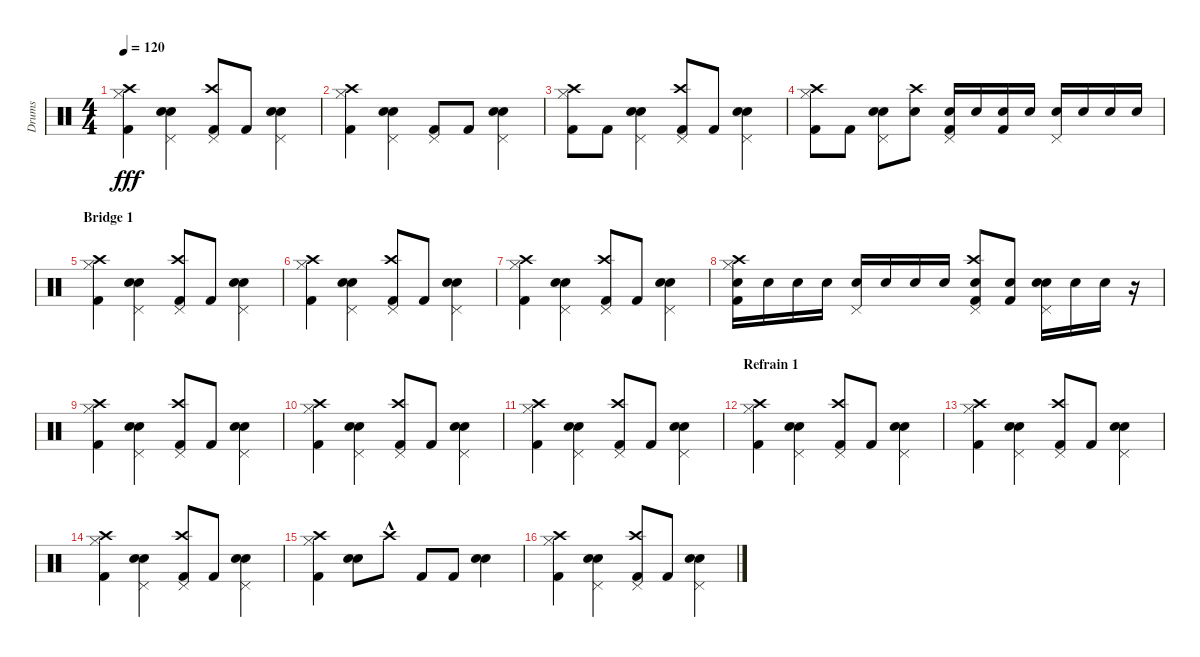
\track ("Drums" "Drums") {instrument percussion}
\staff {score}
\articulation defaults
\ts (4 4)
\tempo 120
\clef neutral
\ks c
("Hi-Hat (closed)" "Kick (hit) 2" "Crash high (hit)").4{dy fff} ("Electric Snare (hit)" "Pedal Hi-Hat (hit)" "Snare (hit) 2").4 ("Pedal Hi-Hat (hit)" "Kick (hit) 2" "Crash high (hit)").8 "Kick (hit) 2".8 ("Electric Snare (hit)" "Pedal Hi-Hat (hit)" "Snare (hit) 2").4 |
("Hi-Hat (closed)" "Kick (hit) 2" "Crash high (hit)").4 ("Electric Snare (hit)" "Pedal Hi-Hat (hit)" "Snare (hit) 2").4 ("Pedal Hi-Hat (hit)" "Kick (hit) 2").8 "Kick (hit) 2".8 ("Electric Snare (hit)" "Pedal Hi-Hat (hit)" "Snare (hit) 2").4 |
("Hi-Hat (closed)" "Kick (hit) 2" "Crash high (hit)").8 "Kick (hit) 2".8 ("Electric Snare (hit)" "Pedal Hi-Hat (hit)" "Snare (hit) 2").4 ("Pedal Hi-Hat (hit)" "Kick (hit) 2" "Crash high (hit)").8 "Kick (hit) 2".8 ("Electric Snare (hit)" "Pedal Hi-Hat (hit)" "Snare (hit) 2").4 |
("Hi-Hat (closed)" "Kick (hit) 2" "Crash high (hit)").8 "Kick (hit) 2".8 ("Electric Snare (hit)" "Pedal Hi-Hat (hit)" "Snare (hit) 2").8 ("Crash high (hit)" "Snare (hit) 2").8 ("Pedal Hi-Hat (hit)" "Kick (hit) 2" "Snare (hit) 2").16 "Snare (hit) 2".16 ("Kick (hit) 2" "Snare (hit) 2").16 "Snare (hit) 2".16 ("Pedal Hi-Hat (hit)" "Electric Snare (hit)").16 "Electric Snare (hit)".16 "Snare (hit) 2".16 "Snare (hit) 2".16 |
\section ("" "Bridge 1")
("Hi-Hat (closed)" "Kick (hit) 2" "Crash high (hit)").4 ("Electric Snare (hit)" "Pedal Hi-Hat (hit)" "Snare (hit) 2").4 ("Pedal Hi-Hat (hit)" "Kick (hit) 2" "Crash high (hit)").8 "Kick (hit) 2".8 ("Electric Snare (hit)" "Pedal Hi-Hat (hit)" "Snare (hit) 2").4 |
("Hi-Hat (closed)" "Kick (hit) 2" "Crash high (hit)").4 ("Electric Snare (hit)" "Pedal Hi-Hat (hit)" "Snare (hit) 2").4 ("Pedal Hi-Hat (hit)" "Kick (hit) 2" "Crash high (hit)").8 "Kick (hit) 2".8 ("Electric Snare (hit)" "Pedal Hi-Hat (hit)" "Snare (hit) 2").4 |
("Hi-Hat (closed)" "Kick (hit) 2" "Crash high (hit)").4 ("Electric Snare (hit)" "Pedal Hi-Hat (hit)" "Snare (hit) 2").4 ("Pedal Hi-Hat (hit)" "Kick (hit) 2" "Crash high (hit)").8 "Kick (hit) 2".8 ("Electric Snare (hit)" "Pedal Hi-Hat (hit)" "Snare (hit) 2").4 |
("Hi-Hat (closed)" "Kick (hit) 2" "Crash high (hit)" "Electric Snare (hit)").16 "Electric Snare (hit)".16 "Electric Snare (hit)".16 "Electric Snare (hit)".16 ("Pedal Hi-Hat (hit)" "Snare (hit) 2").16 "Snare (hit) 2".16 "Snare (hit) 2".16 "Snare (hit) 2".16 ("Pedal Hi-Hat (hit)" "Kick (hit) 2" "Crash high (hit)" "Snare (hit) 2").8 ("Kick (hit) 2" "Snare (hit) 2").8 ("Electric Snare (hit)" "Pedal Hi-Hat (hit)" "Snare (hit) 2").16 "Snare (hit) 2".16 "Snare (hit) 2".16 r.16 |
("Hi-Hat (closed)" "Kick (hit) 2" "Crash high (hit)").4 ("Electric Snare (hit)" "Pedal Hi-Hat (hit)" "Snare (hit) 2").4 ("Pedal Hi-Hat (hit)" "Kick (hit) 2" "Crash high (hit)").8 "Kick (hit) 2".8 ("Electric Snare (hit)" "Pedal Hi-Hat (hit)" "Snare (hit) 2").4 |
("Hi-Hat (closed)" "Kick (hit) 2" "Crash high (hit)").4 ("Electric Snare (hit)" "Pedal Hi-Hat (hit)" "Snare (hit) 2").4 ("Pedal Hi-Hat (hit)" "Kick (hit) 2" "Crash high (hit)").8 "Kick (hit) 2".8 ("Electric Snare (hit)" "Pedal Hi-Hat (hit)" "Snare (hit) 2").4 |
("Hi-Hat (closed)" "Kick (hit) 2" "Crash high (hit)").4 ("Electric Snare (hit)" "Pedal Hi-Hat (hit)" "Snare (hit) 2").4 ("Pedal Hi-Hat (hit)" "Kick (hit) 2" "Crash high (hit)").8 "Kick (hit) 2".8 ("Electric Snare (hit)" "Pedal Hi-Hat (hit)" "Snare (hit) 2").4 |
\section ("" "Refrain 1")
("Hi-Hat (closed)" "Kick (hit) 2" "Crash high (hit)").4 ("Electric Snare (hit)" "Pedal Hi-Hat (hit)" "Snare (hit) 2").4 ("Pedal Hi-Hat (hit)" "Kick (hit) 2" "Crash high (hit)").8 "Kick (hit) 2".8 ("Electric Snare (hit)" "Pedal Hi-Hat (hit)" "Snare (hit) 2").4 |
("Hi-Hat (closed)" "Kick (hit) 2" "Crash high (hit)").4 ("Electric Snare (hit)" "Pedal Hi-Hat (hit)" "Snare (hit) 2").4 ("Pedal Hi-Hat (hit)" "Kick (hit) 2" "Crash high (hit)").8 "Kick (hit) 2".8 ("Electric Snare (hit)" "Pedal Hi-Hat (hit)" "Snare (hit) 2").4 |
("Hi-Hat (closed)" "Kick (hit) 2" "Crash high (hit)").4 ("Electric Snare (hit)" "Pedal Hi-Hat (hit)" "Snare (hit) 2").4 ("Pedal Hi-Hat (hit)" "Kick (hit) 2" "Crash high (hit)").8 "Kick (hit) 2".8 ("Electric Snare (hit)" "Pedal Hi-Hat (hit)" "Snare (hit) 2").4 |
("Hi-Hat (closed)" "Kick (hit) 2" "Crash high (hit)").4 ("Electric Snare (hit)" "Snare (hit) 2").8 "Crash high (hit)"{hac}.8 "Kick (hit) 2".8 "Kick (hit) 2".8 ("Electric Snare (hit)" "Snare (hit) 2").4 |
("Hi-Hat (closed)" "Kick (hit) 2" "Crash high (hit)").4 ("Electric Snare (hit)" "Pedal Hi-Hat (hit)" "Snare (hit) 2").4 ("Pedal Hi-Hat (hit)" "Kick (hit) 2" "Crash high (hit)").8 "Kick (hit) 2".8 ("Electric Snare (hit)" "Pedal Hi-Hat (hit)" "Snare (hit) 2").4
